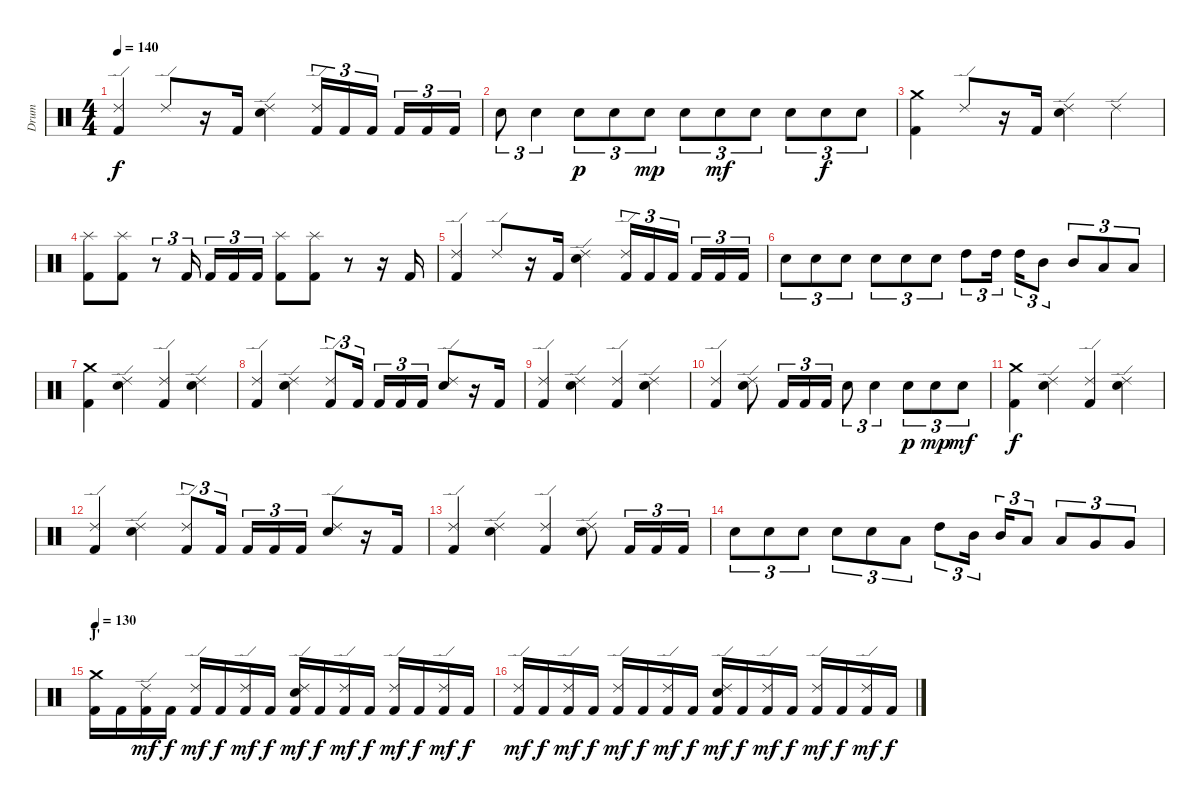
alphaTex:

\track ("Drum" "Drum") {instrument percussion}
\staff {score}
\articulation defaults
\ts (4 4)
\tempo 140
\clef neutral
\ks c
("Ride (edge) 2" "Kick (hit) 2").4{dy f} "Ride (edge) 2".8 r.16 "Kick (hit) 2".16 ("Ride (edge) 2" "Electric Snare (hit)").4 ("Ride (edge) 2" "Kick (hit) 2").16{tu (3 2)} "Kick (hit) 2".16{tu (3 2)} "Kick (hit) 2".16{tu (3 2)} "Kick (hit) 2".16{tu (3 2)} "Kick (hit) 2".16{tu (3 2)} "Kick (hit) 2".16{tu (3 2)} |
"Electric Snare (hit)".8{tu (3 2)} "Electric Snare (hit)".4{tu (3 2)} "Electric Snare (hit)".8{tu (3 2) dy p} "Electric Snare (hit)".8{tu (3 2)} "Electric Snare (hit)".8{tu (3 2) dy mp} "Electric Snare (hit)".8{tu (3 2)} "Electric Snare (hit)".8{tu (3 2) dy mf} "Electric Snare (hit)".8{tu (3 2)} "Electric Snare (hit)".8{tu (3 2)} "Electric Snare (hit)".8{tu (3 2) dy f} "Electric Snare (hit)".8{tu (3 2)} |
("Crash medium (hit)" "Kick (hit) 2").4 "Ride (edge) 2".8 r.16 "Kick (hit) 2".16 ("Ride (edge) 2" "Electric Snare (hit)").4 "Ride (edge) 2".4 |
("Splash (hit)" "Kick (hit) 2").8 ("Splash (hit)" "Kick (hit) 2").8 r.8{tu (3 2)} "Kick (hit) 2".16{tu (3 2)} "Kick (hit) 2".16{tu (3 2)} "Kick (hit) 2".16{tu (3 2)} "Kick (hit) 2".16{tu (3 2)} ("Splash (hit)" "Kick (hit) 2").8 ("Splash (hit)" "Kick (hit) 2").8 r.8 r.16 "Kick (hit) 2".16 |
("Ride (edge) 2" "Kick (hit) 2").4 "Ride (edge) 2".8 r.16 "Kick (hit) 2".16 ("Ride (edge) 2" "Electric Snare (hit)").4 ("Ride (edge) 2" "Kick (hit) 2").16{tu (3 2)} "Kick (hit) 2".16{tu (3 2)} "Kick (hit) 2".16{tu (3 2)} "Kick (hit) 2".16{tu (3 2)} "Kick (hit) 2".16{tu (3 2)} "Kick (hit) 2".16{tu (3 2)} |
"Electric Snare (hit)".8{tu (3 2)} "Electric Snare (hit)".8{tu (3 2)} "Electric Snare (hit)".8{tu (3 2)} "Electric Snare (hit)".8{tu (3 2)} "Electric Snare (hit)".8{tu (3 2)} "Electric Snare (hit)".8{tu (3 2)} "High Tom (hit)".8{tu (3 2)} "High Tom (hit)".16{tu (3 2)} "High Tom (hit)".16{tu (3 2)} "Mid Tom (hit)".8{tu (3 2)} "Mid Tom (hit)".8{tu (3 2)} "Low Tom (hit)".8{tu (3 2)} "Low Tom (hit)".8{tu (3 2)} |
("Crash medium (hit)" "Kick (hit) 2").4 ("Ride (edge) 2" "Electric Snare (hit)").4 ("Ride (edge) 2" "Kick (hit) 2").4 ("Ride (edge) 2" "Electric Snare (hit)").4 |
("Ride (edge) 2" "Kick (hit) 2").4 ("Ride (edge) 2" "Electric Snare (hit)").4 ("Ride (edge) 2" "Kick (hit) 2").8{tu (3 2)} "Kick (hit) 2".16{tu (3 2)} "Kick (hit) 2".16{tu (3 2)} "Kick (hit) 2".16{tu (3 2)} "Kick (hit) 2".16{tu (3 2)} ("Ride (edge) 2" "Electric Snare (hit)").8 r.16 "Kick (hit) 2".16 |
("Ride (edge) 2" "Kick (hit) 2").4 ("Ride (edge) 2" "Electric Snare (hit)").4 ("Ride (edge) 2" "Kick (hit) 2").4 ("Ride (edge) 2" "Electric Snare (hit)").4 |
("Ride (edge) 2" "Kick (hit) 2").4 ("Ride (edge) 2" "Electric Snare (hit)").8 "Kick (hit) 2".16{tu (3 2)} "Kick (hit) 2".16{tu (3 2)} "Kick (hit) 2".16{tu (3 2)} "Electric Snare (hit)".8{tu (3 2)} "Electric Snare (hit)".4{tu (3 2)} "Electric Snare (hit)".8{tu (3 2) dy p} "Electric Snare (hit)".8{tu (3 2) dy mp} "Electric Snare (hit)".8{tu (3 2) dy mf} |
("Crash medium (hit)" "Kick (hit) 2").4{dy f} ("Ride (edge) 2" "Electric Snare (hit)").4 ("Ride (edge) 2" "Kick (hit) 2").4 ("Ride (edge) 2" "Electric Snare (hit)").4 |
("Ride (edge) 2" "Kick (hit) 2").4 ("Ride (edge) 2" "Electric Snare (hit)").4 ("Ride (edge) 2" "Kick (hit) 2").8{tu (3 2)} "Kick (hit) 2".16{tu (3 2)} "Kick (hit) 2".16{tu (3 2)} "Kick (hit) 2".16{tu (3 2)} "Kick (hit) 2".16{tu (3 2)} ("Ride (edge) 2" "Electric Snare (hit)").8 r.16 "Kick (hit) 2".16 |
("Ride (edge) 2" "Kick (hit) 2").4 ("Ride (edge) 2" "Electric Snare (hit)").4 ("Ride (edge) 2" "Kick (hit) 2").4 ("Ride (edge) 2" "Electric Snare (hit)").8 "Kick (hit) 2".16{tu (3 2)} "Kick (hit) 2".16{tu (3 2)} "Kick (hit) 2".16{tu (3 2)} |
"Electric Snare (hit)".8{tu (3 2)} "Electric Snare (hit)".8{tu (3 2)} "Electric Snare (hit)".8{tu (3 2)} "Electric Snare (hit)".8{tu (3 2)} "Electric Snare (hit)".8{tu (3 2)} "Low Tom (hit)".8{tu (3 2)} "High Tom (hit)".8{tu (3 2)} "Mid Tom (hit)".16{tu (3 2)} "Mid Tom (hit)".16{tu (3 2)} "Low Tom (hit)".8{tu (3 2)} "Low Tom (hit)".8{tu (3 2)} "Very Low Tom (hit)".8{tu (3 2)} "Very Low Tom (hit)".8{tu (3 2)} |
\section ("" "J'")
\tempo 130
("Crash medium (hit)" "Kick (hit) 2").16 "Kick (hit) 2".16 ("Ride (edge) 2" "Kick (hit) 2").16{dy mf} "Kick (hit) 2".16{dy f} ("Ride (edge) 2" "Kick (hit) 2").16{dy mf} "Kick (hit) 2".16{dy f} ("Ride (edge) 2" "Kick (hit) 2").16{dy mf} "Kick (hit) 2".16{dy f} ("Ride (edge) 2" "Electric Snare (hit)" "Kick (hit) 2").16{dy mf} "Kick (hit) 2".16{dy f} ("Ride (edge) 2" "Kick (hit) 2").16{dy mf} "Kick (hit) 2".16{dy f} ("Ride (edge) 2" "Kick (hit) 2").16{dy mf} "Kick (hit) 2".16{dy f} ("Ride (edge) 2" "Kick (hit) 2").16{dy mf} "Kick (hit) 2".16{dy f} |
("Ride (edge) 2" "Kick (hit) 2").16{dy mf} "Kick (hit) 2".16{dy f} ("Ride (edge) 2" "Kick (hit) 2").16{dy mf} "Kick (hit) 2".16{dy f} ("Ride (edge) 2" "Kick (hit) 2").16{dy mf} "Kick (hit) 2".16{dy f} ("Ride (edge) 2" "Kick (hit) 2").16{dy mf} "Kick (hit) 2".16{dy f} ("Ride (edge) 2" "Electric Snare (hit)" "Kick (hit) 2").16{dy mf} "Kick (hit) 2".16{dy f} ("Ride (edge) 2" "Kick (hit) 2").16{dy mf} "Kick (hit) 2".16{dy f} ("Ride (edge) 2" "Kick (hit) 2").16{dy mf} "Kick (hit) 2".16{dy f} ("Ride (edge) 2" "Kick (hit) 2").16{dy mf} "Kick (hit) 2".16{dy f}
